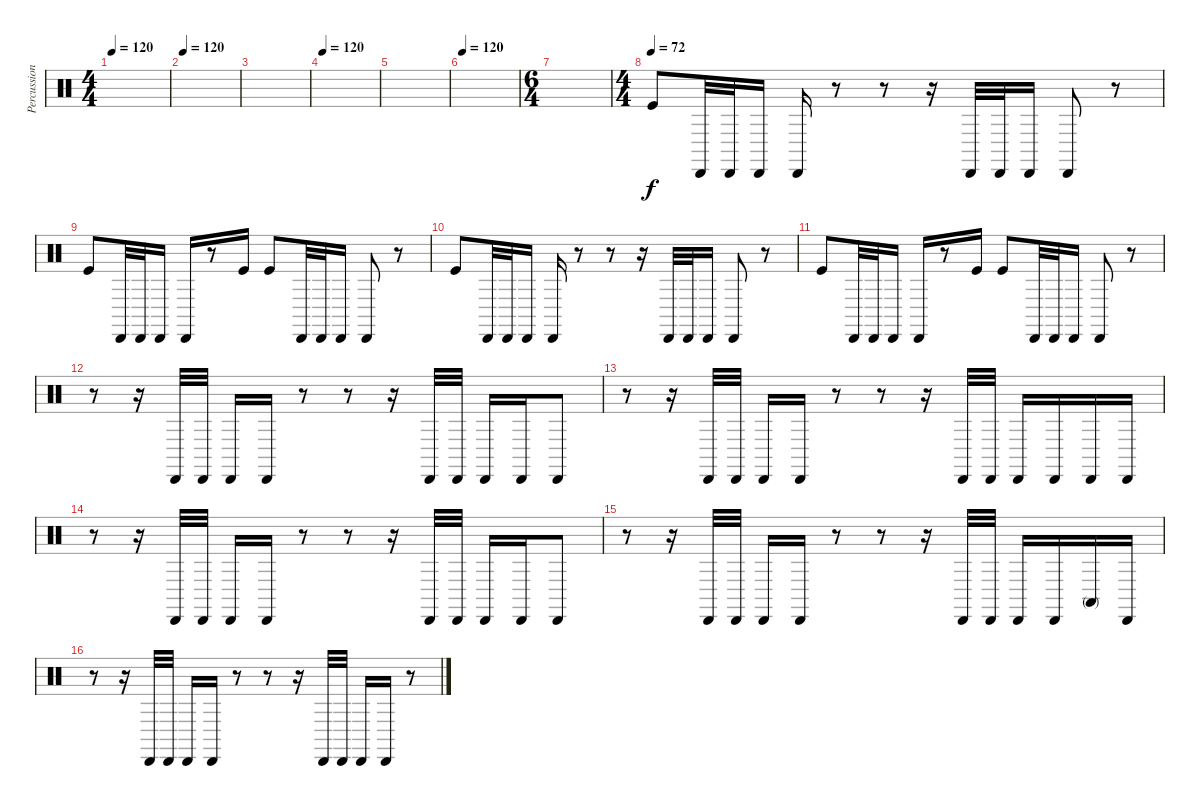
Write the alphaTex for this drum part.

\track ("Percussion" "Percussion") {instrument percussion}
\staff {score}
\articulation defaults
\ts (4 4)
\tempo 120
\clef neutral
\ks c
|
\tempo 120
|
|
\tempo 72
\tempo 120
|
|
\tempo 120
|
\ts (6 4)
|
\ts (4 4)
\tempo (72)
"Kick (hit)".8{volume 13} "Cabasa (hit)".32 "Cabasa (hit)".32 "Cabasa (hit)".16 "Cabasa (hit)".16 r.8 r.8 r.16 "Cabasa (hit)".32 "Cabasa (hit)".32 "Cabasa (hit)".16 "Cabasa (hit)".8 r.8 |
"Kick (hit)".8 "Cabasa (hit)".32 "Cabasa (hit)".32 "Cabasa (hit)".16 "Cabasa (hit)".16 r.8 "Kick (hit)".16 "Kick (hit)".8 "Cabasa (hit)".32 "Cabasa (hit)".32 "Cabasa (hit)".16 "Cabasa (hit)".8 r.8 |
"Kick (hit)".8 "Cabasa (hit)".32 "Cabasa (hit)".32 "Cabasa (hit)".16 "Cabasa (hit)".16 r.8 r.8 r.16 "Cabasa (hit)".32 "Cabasa (hit)".32 "Cabasa (hit)".16 "Cabasa (hit)".8 r.8 |
"Kick (hit)".8 "Cabasa (hit)".32 "Cabasa (hit)".32 "Cabasa (hit)".16 "Cabasa (hit)".16 r.8 "Kick (hit)".16 "Kick (hit)".8 "Cabasa (hit)".32 "Cabasa (hit)".32 "Cabasa (hit)".16 "Cabasa (hit)".8 r.8 |
r.8 r.16 "Cabasa (hit)".32 "Cabasa (hit)".32 "Cabasa (hit)".16 "Cabasa (hit)".16 r.8 r.8 r.16 "Cabasa (hit)".32 "Cabasa (hit)".32 "Cabasa (hit)".16 "Cabasa (hit)".16 "Cabasa (hit)".8 |
r.8 r.16 "Cabasa (hit)".32 "Cabasa (hit)".32 "Cabasa (hit)".16 "Cabasa (hit)".16 r.8 r.8 r.16 "Cabasa (hit)".32 "Cabasa (hit)".32 "Cabasa (hit)".16 "Cabasa (hit)".16 "Cabasa (hit)".16 "Cabasa (hit)".16 |
r.8 r.16 "Cabasa (hit)".32 "Cabasa (hit)".32 "Cabasa (hit)".16 "Cabasa (hit)".16 r.8 r.8 r.16 "Cabasa (hit)".32 "Cabasa (hit)".32 "Cabasa (hit)".16 "Cabasa (hit)".16 "Cabasa (hit)".8 |
r.8 r.16 "Cabasa (hit)".32 "Cabasa (hit)".32 "Cabasa (hit)".16 "Cabasa (hit)".16 r.8 r.8 r.16 "Cabasa (hit)".32 "Cabasa (hit)".32 "Cabasa (hit)".16 "Cabasa (hit)".16 "Conga high (mute)".16 "Cabasa (hit)".16 |
r.8 r.16 "Cabasa (hit)".32 "Cabasa (hit)".32 "Cabasa (hit)".16 "Cabasa (hit)".16 r.8 r.8 r.16 "Cabasa (hit)".32 "Cabasa (hit)".32 "Cabasa (hit)".16 "Cabasa (hit)".16 r.8
